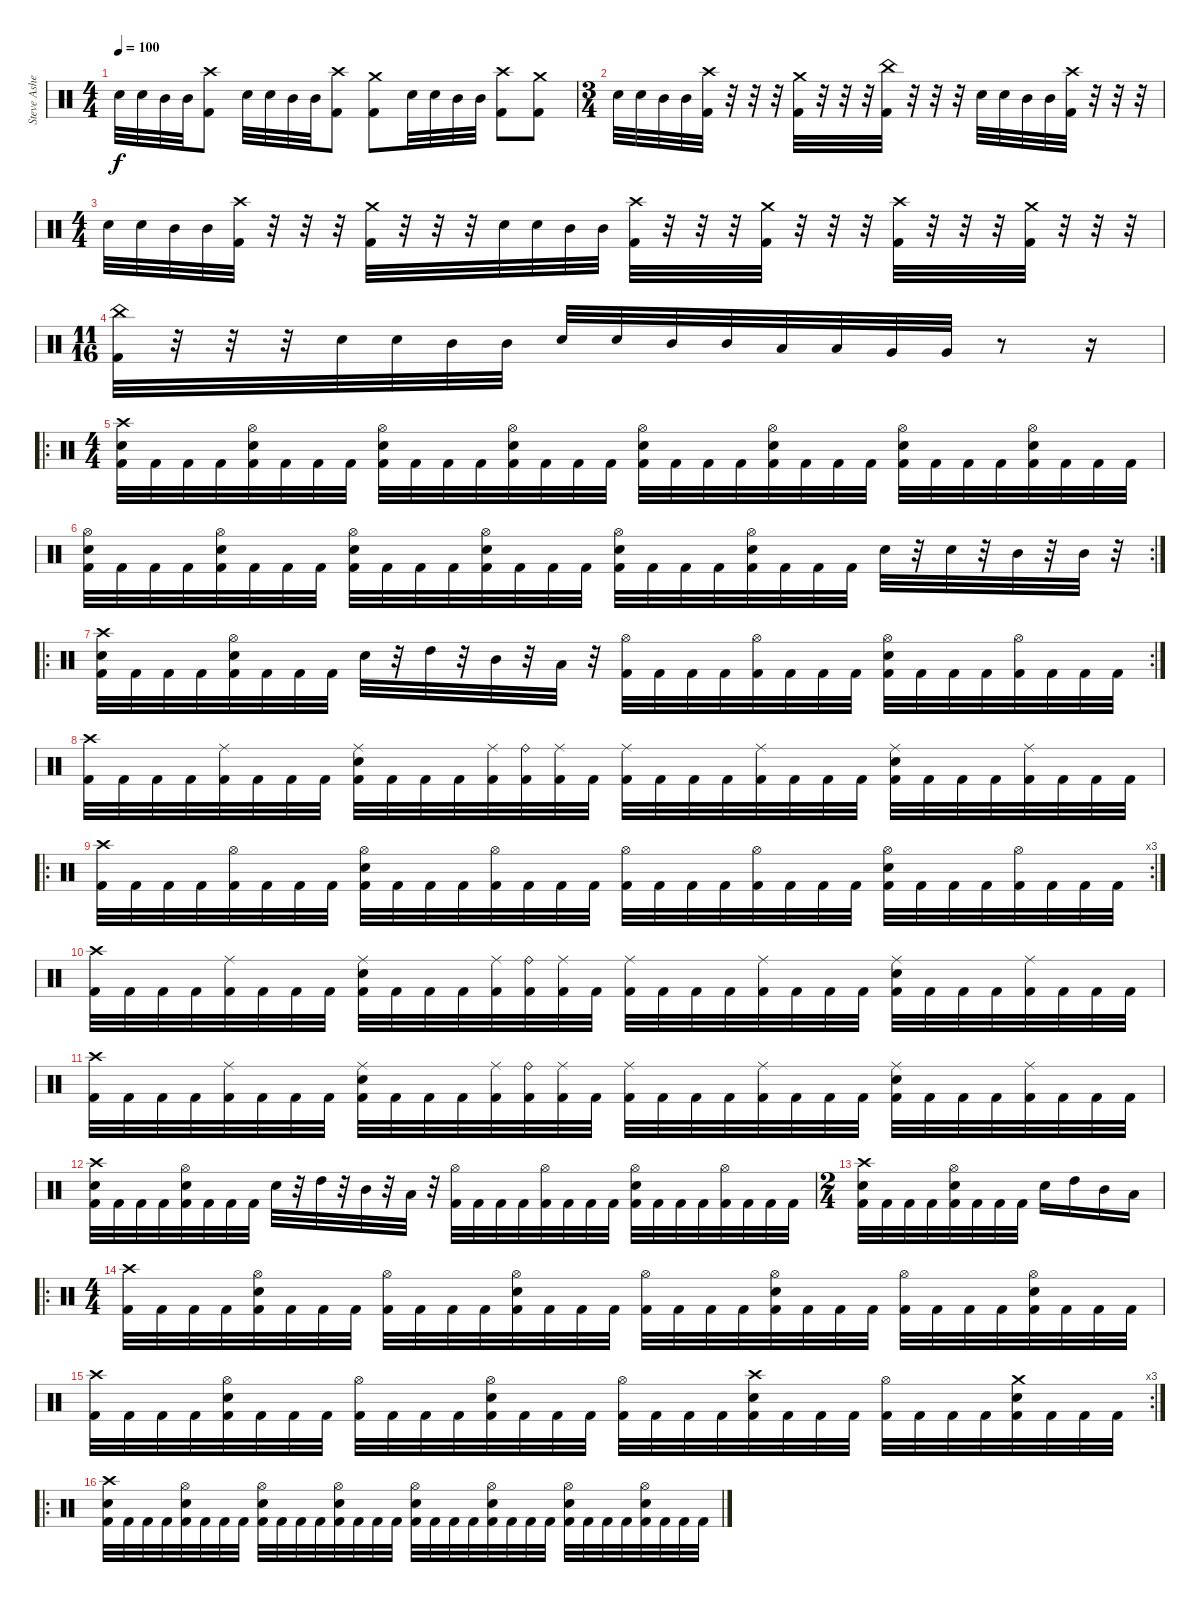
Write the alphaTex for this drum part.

\track ("Steve Asheim" "Steve Ashe") {instrument percussion}
\staff {score}
\articulation defaults
\ts (4 4)
\tempo 100
\clef neutral
\ks c "Electric Snare (hit)".32{dy f} "Electric Snare (hit)".32 "Mid Tom (hit)".32 "Mid Tom (hit)".32
("Crash high (hit)" "Kick (hit) 2").8 "Electric Snare (hit)".32 "Electric Snare (hit)".32 "Mid Tom (hit)".32 "Mid Tom (hit)".32 ("Crash high (hit)" "Kick (hit) 2").8 ("Crash medium (hit)" "Kick (hit) 2").8 "Electric Snare (hit)".32 "Electric Snare (hit)".32 "Mid Tom (hit)".32 "Mid Tom (hit)".32 ("Crash high (hit)" "Kick (hit) 2").8 ("Crash medium (hit)" "Kick (hit) 2").8 |
\ts (3 4)
"Electric Snare (hit)".32 "Electric Snare (hit)".32 "Mid Tom (hit)".32 "Mid Tom (hit)".32 ("Crash high (hit)" "Kick (hit) 2").32 r.32 r.32 r.32 ("Crash medium (hit)" "Kick (hit) 2").32 r.32 r.32 r.32 ("China (hit)" "Kick (hit) 2").32 r.32 r.32 r.32 "Electric Snare (hit)".32 "Electric Snare (hit)".32 "Mid Tom (hit)".32 "Mid Tom (hit)".32 ("Crash high (hit)" "Kick (hit) 2").32 r.32 r.32 r.32 |
\ts (4 4)
"Electric Snare (hit)".32 "Electric Snare (hit)".32 "Mid Tom (hit)".32 "Mid Tom (hit)".32 ("Crash high (hit)" "Kick (hit) 2").32 r.32 r.32 r.32 ("Crash medium (hit)" "Kick (hit) 2").32 r.32 r.32 r.32 "Electric Snare (hit)".32 "Electric Snare (hit)".32 "Mid Tom (hit)".32 "Mid Tom (hit)".32 ("Crash high (hit)" "Kick (hit) 2").32 r.32 r.32 r.32 ("Crash medium (hit)" "Kick (hit) 2").32 r.32 r.32 r.32 ("Crash high (hit)" "Kick (hit) 2").32 r.32 r.32 r.32 ("Crash medium (hit)" "Kick (hit) 2").32 r.32 r.32 r.32 |
\ts (11 16)
("China (hit)" "Kick (hit) 2").32 r.32 r.32 r.32 "Electric Snare (hit)".32 "Electric Snare (hit)".32 "Mid Tom (hit)".32 "Mid Tom (hit)".32 "Electric Snare (hit)".32 "Electric Snare (hit)".32 "Mid Tom (hit)".32 "Mid Tom (hit)".32 "Low Tom (hit)".32 "Low Tom (hit)".32 "Very Low Tom (hit)".32 "Very Low Tom (hit)".32 r.8 r.16 |
\ro
\ts (4 4)
("Crash high (hit)" "Electric Snare (hit)" "Kick (hit) 2").32 "Kick (hit) 2".32 "Kick (hit) 2".32 "Kick (hit) 2".32 ("Hi-Hat (open)" "Electric Snare (hit)" "Kick (hit) 2").32 "Kick (hit) 2".32 "Kick (hit) 2".32 "Kick (hit) 2".32 ("Hi-Hat (open)" "Electric Snare (hit)" "Kick (hit) 2").32 "Kick (hit) 2".32 "Kick (hit) 2".32 "Kick (hit) 2".32 ("Hi-Hat (open)" "Electric Snare (hit)" "Kick (hit) 2").32 "Kick (hit) 2".32 "Kick (hit) 2".32 "Kick (hit) 2".32 ("Hi-Hat (open)" "Electric Snare (hit)" "Kick (hit) 2").32 "Kick (hit) 2".32 "Kick (hit) 2".32 "Kick (hit) 2".32 ("Hi-Hat (open)" "Electric Snare (hit)" "Kick (hit) 2").32 "Kick (hit) 2".32 "Kick (hit) 2".32 "Kick (hit) 2".32 ("Hi-Hat (open)" "Electric Snare (hit)" "Kick (hit) 2").32 "Kick (hit) 2".32 "Kick (hit) 2".32 "Kick (hit) 2".32 ("Hi-Hat (open)" "Electric Snare (hit)" "Kick (hit) 2").32 "Kick (hit) 2".32 "Kick (hit) 2".32 "Kick (hit) 2".32 |
\rc 2
("Hi-Hat (open)" "Electric Snare (hit)" "Kick (hit) 2").32 "Kick (hit) 2".32 "Kick (hit) 2".32 "Kick (hit) 2".32 ("Hi-Hat (open)" "Electric Snare (hit)" "Kick (hit) 2").32 "Kick (hit) 2".32 "Kick (hit) 2".32 "Kick (hit) 2".32 ("Hi-Hat (open)" "Electric Snare (hit)" "Kick (hit) 2").32 "Kick (hit) 2".32 "Kick (hit) 2".32 "Kick (hit) 2".32 ("Hi-Hat (open)" "Electric Snare (hit)" "Kick (hit) 2").32 "Kick (hit) 2".32 "Kick (hit) 2".32 "Kick (hit) 2".32 ("Hi-Hat (open)" "Electric Snare (hit)" "Kick (hit) 2").32 "Kick (hit) 2".32 "Kick (hit) 2".32 "Kick (hit) 2".32 ("Hi-Hat (open)" "Electric Snare (hit)" "Kick (hit) 2").32 "Kick (hit) 2".32 "Kick (hit) 2".32 "Kick (hit) 2".32 "Electric Snare (hit)".32 r.32 "Electric Snare (hit)".32 r.32 "Mid Tom (hit)".32 r.32 "Mid Tom (hit)".32 r.32 |
\ro
\rc 2
("Crash high (hit)" "Electric Snare (hit)" "Kick (hit) 2").32 "Kick (hit) 2".32 "Kick (hit) 2".32 "Kick (hit) 2".32 ("Hi-Hat (open)" "Electric Snare (hit)" "Kick (hit) 2").32 "Kick (hit) 2".32 "Kick (hit) 2".32 "Kick (hit) 2".32 "Electric Snare (hit)".32 r.32 "High Tom (hit)".32 r.32 "Mid Tom (hit)".32 r.32 "Low Tom (hit)".32 r.32 ("Hi-Hat (open)" "Kick (hit) 2").32 "Kick (hit) 2".32 "Kick (hit) 2".32 "Kick (hit) 2".32 ("Hi-Hat (open)" "Kick (hit) 2").32 "Kick (hit) 2".32 "Kick (hit) 2".32 "Kick (hit) 2".32 ("Hi-Hat (open)" "Electric Snare (hit)" "Kick (hit) 2").32 "Kick (hit) 2".32 "Kick (hit) 2".32 "Kick (hit) 2".32 ("Hi-Hat (open)" "Kick (hit) 2").32 "Kick (hit) 2".32 "Kick (hit) 2".32 "Kick (hit) 2".32 |
("Crash high (hit)" "Kick (hit) 2").32 "Kick (hit) 2".32 "Kick (hit) 2".32 "Kick (hit) 2".32 ("Ride (middle)" "Kick (hit) 2").32 "Kick (hit) 2".32 "Kick (hit) 2".32 "Kick (hit) 2".32 ("Ride (middle)" "Electric Snare (hit)" "Kick (hit) 2").32 "Kick (hit) 2".32 "Kick (hit) 2".32 "Kick (hit) 2".32 ("Ride (middle)" "Kick (hit) 2").32 ("Ride (bell)" "Kick (hit) 2").32 ("Ride (middle)" "Kick (hit) 2").32 "Kick (hit) 2".32 ("Ride (middle)" "Kick (hit) 2").32 "Kick (hit) 2".32 "Kick (hit) 2".32 "Kick (hit) 2".32 ("Ride (middle)" "Kick (hit) 2").32 "Kick (hit) 2".32 "Kick (hit) 2".32 "Kick (hit) 2".32 ("Ride (middle)" "Electric Snare (hit)" "Kick (hit) 2").32 "Kick (hit) 2".32 "Kick (hit) 2".32 "Kick (hit) 2".32 ("Ride (middle)" "Kick (hit) 2").32 "Kick (hit) 2".32 "Kick (hit) 2".32 "Kick (hit) 2".32 |
\ro
\rc 3
("Crash high (hit)" "Kick (hit) 2").32 "Kick (hit) 2".32 "Kick (hit) 2".32 "Kick (hit) 2".32 ("Hi-Hat (open)" "Kick (hit) 2").32 "Kick (hit) 2".32 "Kick (hit) 2".32 "Kick (hit) 2".32 ("Hi-Hat (open)" "Electric Snare (hit)" "Kick (hit) 2").32 "Kick (hit) 2".32 "Kick (hit) 2".32 "Kick (hit) 2".32 ("Hi-Hat (open)" "Kick (hit) 2").32 "Kick (hit) 2".32 "Kick (hit) 2".32 "Kick (hit) 2".32 ("Hi-Hat (open)" "Kick (hit) 2").32 "Kick (hit) 2".32 "Kick (hit) 2".32 "Kick (hit) 2".32 ("Hi-Hat (open)" "Kick (hit) 2").32 "Kick (hit) 2".32 "Kick (hit) 2".32 "Kick (hit) 2".32 ("Hi-Hat (open)" "Electric Snare (hit)" "Kick (hit) 2").32 "Kick (hit) 2".32 "Kick (hit) 2".32 "Kick (hit) 2".32 ("Hi-Hat (open)" "Kick (hit) 2").32 "Kick (hit) 2".32 "Kick (hit) 2".32 "Kick (hit) 2".32 |
("Crash high (hit)" "Kick (hit) 2").32 "Kick (hit) 2".32 "Kick (hit) 2".32 "Kick (hit) 2".32 ("Ride (middle)" "Kick (hit) 2").32 "Kick (hit) 2".32 "Kick (hit) 2".32 "Kick (hit) 2".32 ("Ride (middle)" "Electric Snare (hit)" "Kick (hit) 2").32 "Kick (hit) 2".32 "Kick (hit) 2".32 "Kick (hit) 2".32 ("Ride (middle)" "Kick (hit) 2").32 ("Ride (bell)" "Kick (hit) 2").32 ("Ride (middle)" "Kick (hit) 2").32 "Kick (hit) 2".32 ("Ride (middle)" "Kick (hit) 2").32 "Kick (hit) 2".32 "Kick (hit) 2".32 "Kick (hit) 2".32 ("Ride (middle)" "Kick (hit) 2").32 "Kick (hit) 2".32 "Kick (hit) 2".32 "Kick (hit) 2".32 ("Ride (middle)" "Electric Snare (hit)" "Kick (hit) 2").32 "Kick (hit) 2".32 "Kick (hit) 2".32 "Kick (hit) 2".32 ("Ride (middle)" "Kick (hit) 2").32 "Kick (hit) 2".32 "Kick (hit) 2".32 "Kick (hit) 2".32 |
("Crash high (hit)" "Kick (hit) 2").32 "Kick (hit) 2".32 "Kick (hit) 2".32 "Kick (hit) 2".32 ("Ride (middle)" "Kick (hit) 2").32 "Kick (hit) 2".32 "Kick (hit) 2".32 "Kick (hit) 2".32 ("Ride (middle)" "Electric Snare (hit)" "Kick (hit) 2").32 "Kick (hit) 2".32 "Kick (hit) 2".32 "Kick (hit) 2".32 ("Ride (middle)" "Kick (hit) 2").32 ("Ride (bell)" "Kick (hit) 2").32 ("Ride (middle)" "Kick (hit) 2").32 "Kick (hit) 2".32 ("Ride (middle)" "Kick (hit) 2").32 "Kick (hit) 2".32 "Kick (hit) 2".32 "Kick (hit) 2".32 ("Ride (middle)" "Kick (hit) 2").32 "Kick (hit) 2".32 "Kick (hit) 2".32 "Kick (hit) 2".32 ("Ride (middle)" "Electric Snare (hit)" "Kick (hit) 2").32 "Kick (hit) 2".32 "Kick (hit) 2".32 "Kick (hit) 2".32 ("Ride (middle)" "Kick (hit) 2").32 "Kick (hit) 2".32 "Kick (hit) 2".32 "Kick (hit) 2".32 |
("Crash high (hit)" "Electric Snare (hit)" "Kick (hit) 2").32 "Kick (hit) 2".32 "Kick (hit) 2".32 "Kick (hit) 2".32 ("Hi-Hat (open)" "Electric Snare (hit)" "Kick (hit) 2").32 "Kick (hit) 2".32 "Kick (hit) 2".32 "Kick (hit) 2".32 "Electric Snare (hit)".32 r.32 "High Tom (hit)".32 r.32 "Mid Tom (hit)".32 r.32 "Low Tom (hit)".32 r.32 ("Hi-Hat (open)" "Kick (hit) 2").32 "Kick (hit) 2".32 "Kick (hit) 2".32 "Kick (hit) 2".32 ("Hi-Hat (open)" "Kick (hit) 2").32 "Kick (hit) 2".32 "Kick (hit) 2".32 "Kick (hit) 2".32 ("Hi-Hat (open)" "Electric Snare (hit)" "Kick (hit) 2").32 "Kick (hit) 2".32 "Kick (hit) 2".32 "Kick (hit) 2".32 ("Hi-Hat (open)" "Kick (hit) 2").32 "Kick (hit) 2".32 "Kick (hit) 2".32 "Kick (hit) 2".32 |
\ts (2 4)
("Crash high (hit)" "Electric Snare (hit)" "Kick (hit) 2").32 "Kick (hit) 2".32 "Kick (hit) 2".32 "Kick (hit) 2".32 ("Hi-Hat (open)" "Electric Snare (hit)" "Kick (hit) 2").32 "Kick (hit) 2".32 "Kick (hit) 2".32 "Kick (hit) 2".32 "Electric Snare (hit)".16 "High Tom (hit)".16 "Mid Tom (hit)".16 "Low Tom (hit)".16 |
\ro
\ts (4 4)
("Crash high (hit)" "Kick (hit) 2").32 "Kick (hit) 2".32 "Kick (hit) 2".32 "Kick (hit) 2".32 ("Hi-Hat (open)" "Electric Snare (hit)" "Kick (hit) 2").32 "Kick (hit) 2".32 "Kick (hit) 2".32 "Kick (hit) 2".32 ("Hi-Hat (open)" "Kick (hit) 2").32 "Kick (hit) 2".32 "Kick (hit) 2".32 "Kick (hit) 2".32 ("Hi-Hat (open)" "Electric Snare (hit)" "Kick (hit) 2").32 "Kick (hit) 2".32 "Kick (hit) 2".32 "Kick (hit) 2".32 ("Hi-Hat (open)" "Kick (hit) 2").32 "Kick (hit) 2".32 "Kick (hit) 2".32 "Kick (hit) 2".32 ("Hi-Hat (open)" "Electric Snare (hit)" "Kick (hit) 2").32 "Kick (hit) 2".32 "Kick (hit) 2".32 "Kick (hit) 2".32 ("Hi-Hat (open)" "Kick (hit) 2").32 "Kick (hit) 2".32 "Kick (hit) 2".32 "Kick (hit) 2".32 ("Hi-Hat (open)" "Electric Snare (hit)" "Kick (hit) 2").32 "Kick (hit) 2".32 "Kick (hit) 2".32 "Kick (hit) 2".32 |
\rc 3
("Crash high (hit)" "Kick (hit) 2").32 "Kick (hit) 2".32 "Kick (hit) 2".32 "Kick (hit) 2".32 ("Hi-Hat (open)" "Electric Snare (hit)" "Kick (hit) 2").32 "Kick (hit) 2".32 "Kick (hit) 2".32 "Kick (hit) 2".32 ("Hi-Hat (open)" "Kick (hit) 2").32 "Kick (hit) 2".32 "Kick (hit) 2".32 "Kick (hit) 2".32 ("Hi-Hat (open)" "Electric Snare (hit)" "Kick (hit) 2").32 "Kick (hit) 2".32 "Kick (hit) 2".32 "Kick (hit) 2".32 ("Hi-Hat (open)" "Kick (hit) 2").32 "Kick (hit) 2".32 "Kick (hit) 2".32 "Kick (hit) 2".32 ("Crash high (hit)" "Electric Snare (hit)" "Kick (hit) 2").32 "Kick (hit) 2".32 "Kick (hit) 2".32 "Kick (hit) 2".32 ("Hi-Hat (open)" "Kick (hit) 2").32 "Kick (hit) 2".32 "Kick (hit) 2".32 "Kick (hit) 2".32 ("Crash medium (hit)" "Electric Snare (hit)" "Kick (hit) 2").32 "Kick (hit) 2".32 "Kick (hit) 2".32 "Kick (hit) 2".32 |
\ro
("Crash high (hit)" "Electric Snare (hit)" "Kick (hit) 2").32 "Kick (hit) 2".32 "Kick (hit) 2".32 "Kick (hit) 2".32 ("Hi-Hat (open)" "Electric Snare (hit)" "Kick (hit) 2").32 "Kick (hit) 2".32 "Kick (hit) 2".32 "Kick (hit) 2".32 ("Hi-Hat (open)" "Electric Snare (hit)" "Kick (hit) 2").32 "Kick (hit) 2".32 "Kick (hit) 2".32 "Kick (hit) 2".32 ("Hi-Hat (open)" "Electric Snare (hit)" "Kick (hit) 2").32 "Kick (hit) 2".32 "Kick (hit) 2".32 "Kick (hit) 2".32 ("Hi-Hat (open)" "Electric Snare (hit)" "Kick (hit) 2").32 "Kick (hit) 2".32 "Kick (hit) 2".32 "Kick (hit) 2".32 ("Hi-Hat (open)" "Electric Snare (hit)" "Kick (hit) 2").32 "Kick (hit) 2".32 "Kick (hit) 2".32 "Kick (hit) 2".32 ("Hi-Hat (open)" "Electric Snare (hit)" "Kick (hit) 2").32 "Kick (hit) 2".32 "Kick (hit) 2".32 "Kick (hit) 2".32 ("Hi-Hat (open)" "Electric Snare (hit)" "Kick (hit) 2").32 "Kick (hit) 2".32 "Kick (hit) 2".32 "Kick (hit) 2".32
